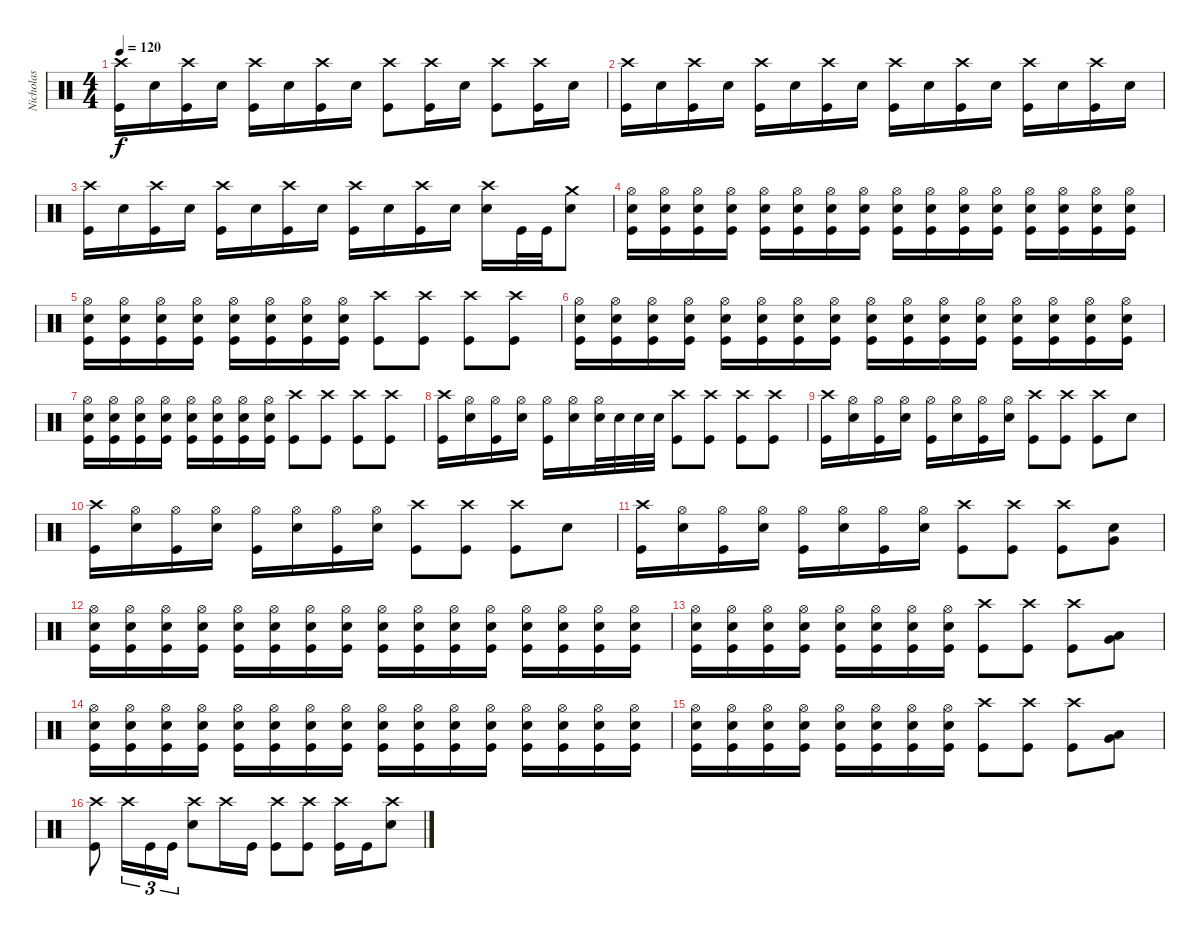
\track ("Nicholas" "Nicholas") {instrument percussion}
\staff {score}
\articulation defaults
\ts (4 4)
\tempo 120
\clef neutral
\ks c
("Crash high (hit)" "Kick (hit)").16{dy f} "Electric Snare (hit)".16 ("Crash high (hit)" "Kick (hit)").16 "Electric Snare (hit)".16 ("Crash high (hit)" "Kick (hit)").16 "Electric Snare (hit)".16 ("Crash high (hit)" "Kick (hit)").16 "Electric Snare (hit)".16 ("Crash high (hit)" "Kick (hit)").8 ("Crash high (hit)" "Kick (hit)").16 "Electric Snare (hit)".16 ("Crash high (hit)" "Kick (hit)").8 ("Crash high (hit)" "Kick (hit)").16 "Electric Snare (hit)".16 |
("Crash high (hit)" "Kick (hit)").16 "Electric Snare (hit)".16 ("Crash high (hit)" "Kick (hit)").16 "Electric Snare (hit)".16 ("Crash high (hit)" "Kick (hit)").16 "Electric Snare (hit)".16 ("Crash high (hit)" "Kick (hit)").16 "Electric Snare (hit)".16 ("Crash high (hit)" "Kick (hit)").16 "Electric Snare (hit)".16 ("Crash high (hit)" "Kick (hit)").16 "Electric Snare (hit)".16 ("Crash high (hit)" "Kick (hit)").16 "Electric Snare (hit)".16 ("Crash high (hit)" "Kick (hit)").16 "Electric Snare (hit)".16 |
("Crash high (hit)" "Kick (hit)").16 "Electric Snare (hit)".16 ("Crash high (hit)" "Kick (hit)").16 "Electric Snare (hit)".16 ("Crash high (hit)" "Kick (hit)").16 "Electric Snare (hit)".16 ("Crash high (hit)" "Kick (hit)").16 "Electric Snare (hit)".16 ("Crash high (hit)" "Kick (hit)").16 "Electric Snare (hit)".16 ("Crash high (hit)" "Kick (hit)").16 "Electric Snare (hit)".16 ("Crash high (hit)" "Electric Snare (hit)").16 "Kick (hit)".32 "Kick (hit)".32 ("Crash medium (hit)" "Electric Snare (hit)").8 |
("Hi-Hat (open)" "Electric Snare (hit)" "Kick (hit)").16 ("Hi-Hat (open)" "Electric Snare (hit)" "Kick (hit)").16 ("Hi-Hat (open)" "Electric Snare (hit)" "Kick (hit)").16 ("Hi-Hat (open)" "Electric Snare (hit)" "Kick (hit)").16 ("Hi-Hat (open)" "Electric Snare (hit)" "Kick (hit)").16 ("Hi-Hat (open)" "Electric Snare (hit)" "Kick (hit)").16 ("Hi-Hat (open)" "Electric Snare (hit)" "Kick (hit)").16 ("Hi-Hat (open)" "Electric Snare (hit)" "Kick (hit)").16 ("Hi-Hat (open)" "Electric Snare (hit)" "Kick (hit)").16 ("Hi-Hat (open)" "Electric Snare (hit)" "Kick (hit)").16 ("Hi-Hat (open)" "Electric Snare (hit)" "Kick (hit)").16 ("Hi-Hat (open)" "Electric Snare (hit)" "Kick (hit)").16 ("Hi-Hat (open)" "Electric Snare (hit)" "Kick (hit)").16 ("Hi-Hat (open)" "Electric Snare (hit)" "Kick (hit)").16 ("Hi-Hat (open)" "Electric Snare (hit)" "Kick (hit)").16 ("Hi-Hat (open)" "Electric Snare (hit)" "Kick (hit)").16 |
("Hi-Hat (open)" "Electric Snare (hit)" "Kick (hit)").16 ("Hi-Hat (open)" "Electric Snare (hit)" "Kick (hit)").16 ("Hi-Hat (open)" "Electric Snare (hit)" "Kick (hit)").16 ("Hi-Hat (open)" "Electric Snare (hit)" "Kick (hit)").16 ("Hi-Hat (open)" "Electric Snare (hit)" "Kick (hit)").16 ("Hi-Hat (open)" "Electric Snare (hit)" "Kick (hit)").16 ("Hi-Hat (open)" "Electric Snare (hit)" "Kick (hit)").16 ("Hi-Hat (open)" "Electric Snare (hit)" "Kick (hit)").16 ("Crash high (hit)" "Kick (hit)").8 ("Crash high (hit)" "Kick (hit)").8 ("Crash high (hit)" "Kick (hit)").8 ("Crash high (hit)" "Kick (hit)").8 |
("Hi-Hat (open)" "Electric Snare (hit)" "Kick (hit)").16 ("Hi-Hat (open)" "Electric Snare (hit)" "Kick (hit)").16 ("Hi-Hat (open)" "Electric Snare (hit)" "Kick (hit)").16 ("Hi-Hat (open)" "Electric Snare (hit)" "Kick (hit)").16 ("Hi-Hat (open)" "Electric Snare (hit)" "Kick (hit)").16 ("Hi-Hat (open)" "Electric Snare (hit)" "Kick (hit)").16 ("Hi-Hat (open)" "Electric Snare (hit)" "Kick (hit)").16 ("Hi-Hat (open)" "Electric Snare (hit)" "Kick (hit)").16 ("Hi-Hat (open)" "Electric Snare (hit)" "Kick (hit)").16 ("Hi-Hat (open)" "Electric Snare (hit)" "Kick (hit)").16 ("Hi-Hat (open)" "Electric Snare (hit)" "Kick (hit)").16 ("Hi-Hat (open)" "Electric Snare (hit)" "Kick (hit)").16 ("Hi-Hat (open)" "Electric Snare (hit)" "Kick (hit)").16 ("Hi-Hat (open)" "Electric Snare (hit)" "Kick (hit)").16 ("Hi-Hat (open)" "Electric Snare (hit)" "Kick (hit)").16 ("Hi-Hat (open)" "Electric Snare (hit)" "Kick (hit)").16 |
("Hi-Hat (open)" "Electric Snare (hit)" "Kick (hit)").16 ("Hi-Hat (open)" "Electric Snare (hit)" "Kick (hit)").16 ("Hi-Hat (open)" "Electric Snare (hit)" "Kick (hit)").16 ("Hi-Hat (open)" "Electric Snare (hit)" "Kick (hit)").16 ("Hi-Hat (open)" "Electric Snare (hit)" "Kick (hit)").16 ("Hi-Hat (open)" "Electric Snare (hit)" "Kick (hit)").16 ("Hi-Hat (open)" "Electric Snare (hit)" "Kick (hit)").16 ("Hi-Hat (open)" "Electric Snare (hit)" "Kick (hit)").16 ("Crash high (hit)" "Kick (hit)").8 ("Crash high (hit)" "Kick (hit)").8 ("Crash high (hit)" "Kick (hit)").8 ("Crash high (hit)" "Kick (hit)").8 |
("Crash high (hit)" "Kick (hit)").16 ("Hi-Hat (open)" "Electric Snare (hit)").16 ("Hi-Hat (open)" "Kick (hit)").16 ("Hi-Hat (open)" "Electric Snare (hit)").16 ("Hi-Hat (open)" "Kick (hit)").16 ("Hi-Hat (open)" "Electric Snare (hit)").16 ("Hi-Hat (open)" "Electric Snare (hit)").32 "Electric Snare (hit)".32 "Electric Snare (hit)".32 "Electric Snare (hit)".32 ("Crash high (hit)" "Kick (hit)").8 ("Crash high (hit)" "Kick (hit)").8 ("Crash high (hit)" "Kick (hit)").8 ("Crash high (hit)" "Kick (hit)").8 |
("Crash high (hit)" "Kick (hit)").16 ("Hi-Hat (open)" "Electric Snare (hit)").16 ("Hi-Hat (open)" "Kick (hit)").16 ("Hi-Hat (open)" "Electric Snare (hit)").16 ("Hi-Hat (open)" "Kick (hit)").16 ("Hi-Hat (open)" "Electric Snare (hit)").16 ("Hi-Hat (open)" "Kick (hit)").16 ("Hi-Hat (open)" "Electric Snare (hit)").16 ("Crash high (hit)" "Kick (hit)").8 ("Crash high (hit)" "Kick (hit)").8 ("Crash high (hit)" "Kick (hit)").8 "Electric Snare (hit)".8 |
("Crash high (hit)" "Kick (hit)").16 ("Hi-Hat (open)" "Electric Snare (hit)").16 ("Hi-Hat (open)" "Kick (hit)").16 ("Hi-Hat (open)" "Electric Snare (hit)").16 ("Hi-Hat (open)" "Kick (hit)").16 ("Hi-Hat (open)" "Electric Snare (hit)").16 ("Hi-Hat (open)" "Kick (hit)").16 ("Hi-Hat (open)" "Electric Snare (hit)").16 ("Crash high (hit)" "Kick (hit)").8 ("Crash high (hit)" "Kick (hit)").8 ("Crash high (hit)" "Kick (hit)").8 "Electric Snare (hit)".8 |
("Crash high (hit)" "Kick (hit)").16 ("Hi-Hat (open)" "Electric Snare (hit)").16 ("Hi-Hat (open)" "Kick (hit)").16 ("Hi-Hat (open)" "Electric Snare (hit)").16 ("Hi-Hat (open)" "Kick (hit)").16 ("Hi-Hat (open)" "Electric Snare (hit)").16 ("Hi-Hat (open)" "Kick (hit)").16 ("Hi-Hat (open)" "Electric Snare (hit)").16 ("Crash high (hit)" "Kick (hit)").8 ("Crash high (hit)" "Kick (hit)").8 ("Crash high (hit)" "Kick (hit)").8 ("Electric Snare (hit)" "Very Low Tom (hit)").8 |
("Hi-Hat (open)" "Electric Snare (hit)" "Kick (hit)").16 ("Hi-Hat (open)" "Electric Snare (hit)" "Kick (hit)").16 ("Hi-Hat (open)" "Electric Snare (hit)" "Kick (hit)").16 ("Hi-Hat (open)" "Electric Snare (hit)" "Kick (hit)").16 ("Hi-Hat (open)" "Electric Snare (hit)" "Kick (hit)").16 ("Hi-Hat (open)" "Electric Snare (hit)" "Kick (hit)").16 ("Hi-Hat (open)" "Electric Snare (hit)" "Kick (hit)").16 ("Hi-Hat (open)" "Electric Snare (hit)" "Kick (hit)").16 ("Hi-Hat (open)" "Electric Snare (hit)" "Kick (hit)").16 ("Hi-Hat (open)" "Electric Snare (hit)" "Kick (hit)").16 ("Hi-Hat (open)" "Electric Snare (hit)" "Kick (hit)").16 ("Hi-Hat (open)" "Electric Snare (hit)" "Kick (hit)").16 ("Hi-Hat (open)" "Electric Snare (hit)" "Kick (hit)").16 ("Hi-Hat (open)" "Electric Snare (hit)" "Kick (hit)").16 ("Hi-Hat (open)" "Electric Snare (hit)" "Kick (hit)").16 ("Hi-Hat (open)" "Electric Snare (hit)" "Kick (hit)").16 |
("Hi-Hat (open)" "Electric Snare (hit)" "Kick (hit)").16 ("Hi-Hat (open)" "Electric Snare (hit)" "Kick (hit)").16 ("Hi-Hat (open)" "Electric Snare (hit)" "Kick (hit)").16 ("Hi-Hat (open)" "Electric Snare (hit)" "Kick (hit)").16 ("Hi-Hat (open)" "Electric Snare (hit)" "Kick (hit)").16 ("Hi-Hat (open)" "Electric Snare (hit)" "Kick (hit)").16 ("Hi-Hat (open)" "Electric Snare (hit)" "Kick (hit)").16 ("Hi-Hat (open)" "Electric Snare (hit)" "Kick (hit)").16 ("Crash high (hit)" "Kick (hit)").8 ("Crash high (hit)" "Kick (hit)").8 ("Crash high (hit)" "Kick (hit)").8 ("Low Tom (hit)" "Very Low Tom (hit)").8{bu 60} |
("Hi-Hat (open)" "Electric Snare (hit)" "Kick (hit)").16 ("Hi-Hat (open)" "Electric Snare (hit)" "Kick (hit)").16 ("Hi-Hat (open)" "Electric Snare (hit)" "Kick (hit)").16 ("Hi-Hat (open)" "Electric Snare (hit)" "Kick (hit)").16 ("Hi-Hat (open)" "Electric Snare (hit)" "Kick (hit)").16 ("Hi-Hat (open)" "Electric Snare (hit)" "Kick (hit)").16 ("Hi-Hat (open)" "Electric Snare (hit)" "Kick (hit)").16 ("Hi-Hat (open)" "Electric Snare (hit)" "Kick (hit)").16 ("Hi-Hat (open)" "Electric Snare (hit)" "Kick (hit)").16 ("Hi-Hat (open)" "Electric Snare (hit)" "Kick (hit)").16 ("Hi-Hat (open)" "Electric Snare (hit)" "Kick (hit)").16 ("Hi-Hat (open)" "Electric Snare (hit)" "Kick (hit)").16 ("Hi-Hat (open)" "Electric Snare (hit)" "Kick (hit)").16 ("Hi-Hat (open)" "Electric Snare (hit)" "Kick (hit)").16 ("Hi-Hat (open)" "Electric Snare (hit)" "Kick (hit)").16 ("Hi-Hat (open)" "Electric Snare (hit)" "Kick (hit)").16 |
("Hi-Hat (open)" "Electric Snare (hit)" "Kick (hit)").16 ("Hi-Hat (open)" "Electric Snare (hit)" "Kick (hit)").16 ("Hi-Hat (open)" "Electric Snare (hit)" "Kick (hit)").16 ("Hi-Hat (open)" "Electric Snare (hit)" "Kick (hit)").16 ("Hi-Hat (open)" "Electric Snare (hit)" "Kick (hit)").16 ("Hi-Hat (open)" "Electric Snare (hit)" "Kick (hit)").16 ("Hi-Hat (open)" "Electric Snare (hit)" "Kick (hit)").16 ("Hi-Hat (open)" "Electric Snare (hit)" "Kick (hit)").16 ("Crash high (hit)" "Kick (hit)").8 ("Crash high (hit)" "Kick (hit)").8 ("Crash high (hit)" "Kick (hit)").8 ("Low Tom (hit)" "Very Low Tom (hit)").8{bu 60} |
("Crash high (hit)" "Kick (hit)").8 "Crash high (hit)".16{tu (3 2)} "Kick (hit)".16{tu (3 2)} "Kick (hit)".16{tu (3 2)} ("Crash high (hit)" "Electric Snare (hit)").8 "Crash high (hit)".16 "Kick (hit)".16 ("Crash high (hit)" "Kick (hit)").8 ("Crash high (hit)" "Kick (hit)").8 ("Crash high (hit)" "Kick (hit)").16 "Kick (hit)".16 ("Crash high (hit)" "Electric Snare (hit)").8
